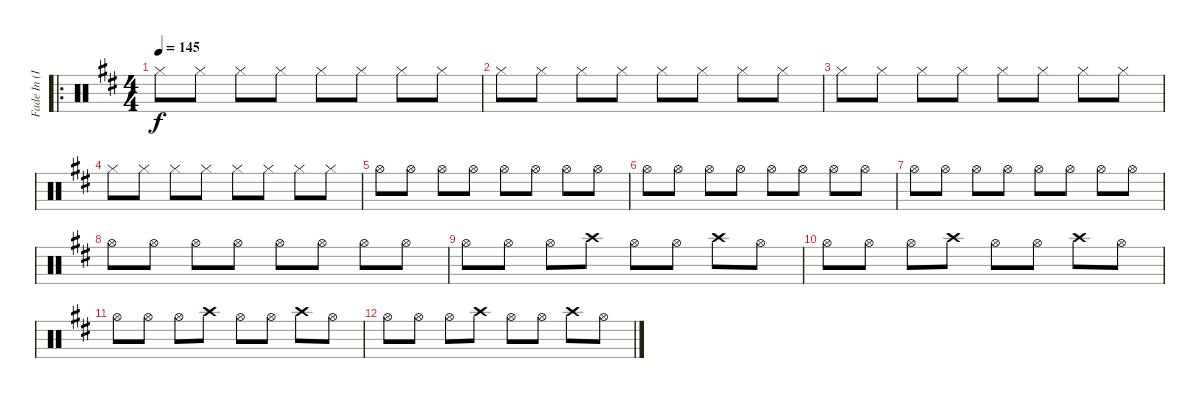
\track ("Fade In (Intro Cymbals)" "Fade In (I") {instrument percussion}
\staff {score}
\articulation defaults
\ro
\ts (4 4)
\tempo 145
\clef neutral
\ks d "Hi-Hat (closed)".8{dy f volume 8} "Hi-Hat (closed)".8 "Hi-Hat (closed)".8 "Hi-Hat (closed)".8 "Hi-Hat (closed)".8 "Hi-Hat (closed)".8 "Hi-Hat (closed)".8 "Hi-Hat (closed)".8
|
"Hi-Hat (closed)".8 "Hi-Hat (closed)".8 "Hi-Hat (closed)".8 "Hi-Hat (closed)".8 "Hi-Hat (closed)".8 "Hi-Hat (closed)".8 "Hi-Hat (closed)".8 "Hi-Hat (closed)".8 |
"Hi-Hat (closed)".8 "Hi-Hat (closed)".8 "Hi-Hat (closed)".8 "Hi-Hat (closed)".8 "Hi-Hat (closed)".8 "Hi-Hat (closed)".8 "Hi-Hat (closed)".8 "Hi-Hat (closed)".8 |
"Hi-Hat (closed)".8 "Hi-Hat (closed)".8 "Hi-Hat (closed)".8 "Hi-Hat (closed)".8 "Hi-Hat (closed)".8 "Hi-Hat (closed)".8 "Hi-Hat (closed)".8 "Hi-Hat (closed)".8 |
"Hi-Hat (open)".8{volume 16} "Hi-Hat (open)".8 "Hi-Hat (open)".8 "Hi-Hat (open)".8 "Hi-Hat (open)".8 "Hi-Hat (open)".8 "Hi-Hat (open)".8 "Hi-Hat (open)".8 |
"Hi-Hat (open)".8 "Hi-Hat (open)".8 "Hi-Hat (open)".8 "Hi-Hat (open)".8 "Hi-Hat (open)".8 "Hi-Hat (open)".8 "Hi-Hat (open)".8 "Hi-Hat (open)".8 |
"Hi-Hat (open)".8 "Hi-Hat (open)".8 "Hi-Hat (open)".8 "Hi-Hat (open)".8 "Hi-Hat (open)".8 "Hi-Hat (open)".8 "Hi-Hat (open)".8 "Hi-Hat (open)".8 |
"Hi-Hat (open)".8 "Hi-Hat (open)".8 "Hi-Hat (open)".8 "Hi-Hat (open)".8 "Hi-Hat (open)".8 "Hi-Hat (open)".8 "Hi-Hat (open)".8 "Hi-Hat (open)".8 |
"Hi-Hat (open)".8 "Hi-Hat (open)".8 "Hi-Hat (open)".8 "Crash high (hit)".8 "Hi-Hat (open)".8 "Hi-Hat (open)".8 "Crash high (hit)".8 "Hi-Hat (open)".8 |
"Hi-Hat (open)".8 "Hi-Hat (open)".8 "Hi-Hat (open)".8 "Crash high (hit)".8 "Hi-Hat (open)".8 "Hi-Hat (open)".8 "Crash high (hit)".8 "Hi-Hat (open)".8 |
"Hi-Hat (open)".8 "Hi-Hat (open)".8 "Hi-Hat (open)".8 "Crash high (hit)".8 "Hi-Hat (open)".8 "Hi-Hat (open)".8 "Crash high (hit)".8 "Hi-Hat (open)".8 |
"Hi-Hat (open)".8 "Hi-Hat (open)".8 "Hi-Hat (open)".8 "Crash high (hit)".8 "Hi-Hat (open)".8 "Hi-Hat (open)".8 "Crash high (hit)".8 "Hi-Hat (open)".8
